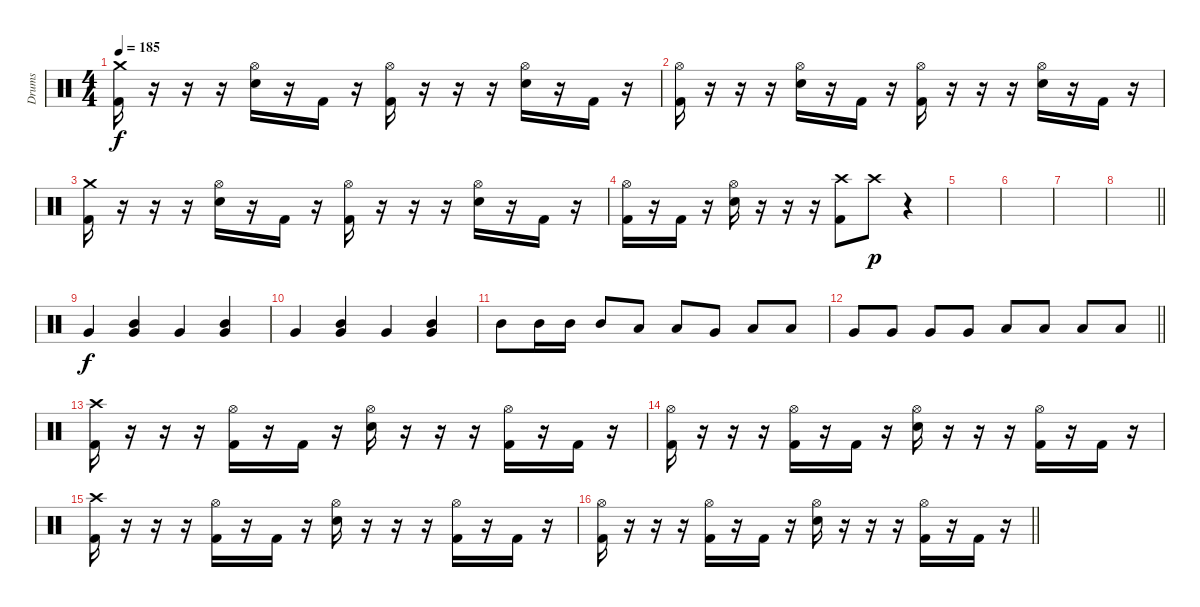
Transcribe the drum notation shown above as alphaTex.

\track ("Drums" "Drums") {instrument percussion}
\staff {score}
\articulation defaults
\ts (4 4)
\tempo 185
\clef neutral
\ks c
("Crash medium (hit)" "Kick (hit) 2").16{dy f} r.16 r.16 r.16 ("Hi-Hat (open)" "Electric Snare (hit)").16 r.16 "Kick (hit) 2".16 r.16 ("Hi-Hat (open)" "Kick (hit) 2").16 r.16 r.16 r.16 ("Hi-Hat (open)" "Electric Snare (hit)").16 r.16 "Kick (hit) 2".16 r.16 |
("Hi-Hat (open)" "Kick (hit) 2").16 r.16 r.16 r.16 ("Hi-Hat (open)" "Electric Snare (hit)").16 r.16 "Kick (hit) 2".16 r.16 ("Hi-Hat (open)" "Kick (hit) 2").16 r.16 r.16 r.16 ("Hi-Hat (open)" "Electric Snare (hit)").16 r.16 "Kick (hit) 2".16 r.16 |
("Crash medium (hit)" "Kick (hit) 2").16 r.16 r.16 r.16 ("Hi-Hat (open)" "Electric Snare (hit)").16 r.16 "Kick (hit) 2".16 r.16 ("Hi-Hat (open)" "Kick (hit) 2").16 r.16 r.16 r.16 ("Hi-Hat (open)" "Electric Snare (hit)").16 r.16 "Kick (hit) 2".16 r.16 |
("Hi-Hat (open)" "Kick (hit) 2").16 r.16 "Kick (hit) 2".16 r.16 ("Hi-Hat (open)" "Electric Snare (hit)").16 r.16 r.16 r.16 ("Crash high (hit)" "Kick (hit) 2").8 "Crash high (hit)".8{dy p} r.4 |
|
|
|
\barLineRight lightlight
|
\section ("" "")
"Very Low Tom (hit)".4{dy f} ("Mid Tom (hit)" "Very Low Tom (hit)").4 "Very Low Tom (hit)".4 ("Mid Tom (hit)" "Very Low Tom (hit)").4 |
"Very Low Tom (hit)".4 ("Mid Tom (hit)" "Very Low Tom (hit)").4 "Very Low Tom (hit)".4 ("Mid Tom (hit)" "Very Low Tom (hit)").4 |
"Mid Tom (hit)".8 "Mid Tom (hit)".16 "Mid Tom (hit)".16 "Mid Tom (hit)".8 "Low Tom (hit)".8 "Low Tom (hit)".8 "Very Low Tom (hit)".8 "Low Floor Tom (hit)".8 "Low Floor Tom (hit)".8 |
\barLineRight lightlight "Very Low Tom (hit)".8 "Very Low Tom (hit)".8 "Very Low Tom (hit)".8 "Very Low Tom (hit)".8 "Low Floor Tom (hit)".8 "Low Floor Tom (hit)".8 "Low Floor Tom (hit)".8 "Low Floor Tom (hit)".8
|
\section ("" "")
("Crash high (hit)" "Kick (hit) 2").16 r.16 r.16 r.16 ("Hi-Hat (open)" "Kick (hit) 2").16 r.16 "Kick (hit) 2".16 r.16 ("Hi-Hat (open)" "Electric Snare (hit)").16 r.16 r.16 r.16 ("Hi-Hat (open)" "Kick (hit) 2").16 r.16 "Kick (hit) 2".16 r.16 |
("Hi-Hat (open)" "Kick (hit) 2").16 r.16 r.16 r.16 ("Hi-Hat (open)" "Kick (hit) 2").16 r.16 "Kick (hit) 2".16 r.16 ("Hi-Hat (open)" "Electric Snare (hit)").16 r.16 r.16 r.16 ("Hi-Hat (open)" "Kick (hit) 2").16 r.16 "Kick (hit) 2".16 r.16 |
("Crash high (hit)" "Kick (hit) 2").16 r.16 r.16 r.16 ("Hi-Hat (open)" "Kick (hit) 2").16 r.16 "Kick (hit) 2".16 r.16 ("Hi-Hat (open)" "Electric Snare (hit)").16 r.16 r.16 r.16 ("Hi-Hat (open)" "Kick (hit) 2").16 r.16 "Kick (hit) 2".16 r.16 |
\barLineRight lightlight
("Hi-Hat (open)" "Kick (hit) 2").16 r.16 r.16 r.16 ("Hi-Hat (open)" "Kick (hit) 2").16 r.16 "Kick (hit) 2".16 r.16 ("Hi-Hat (open)" "Electric Snare (hit)").16 r.16 r.16 r.16 ("Hi-Hat (open)" "Kick (hit) 2").16 r.16 "Kick (hit) 2".16 r.16
